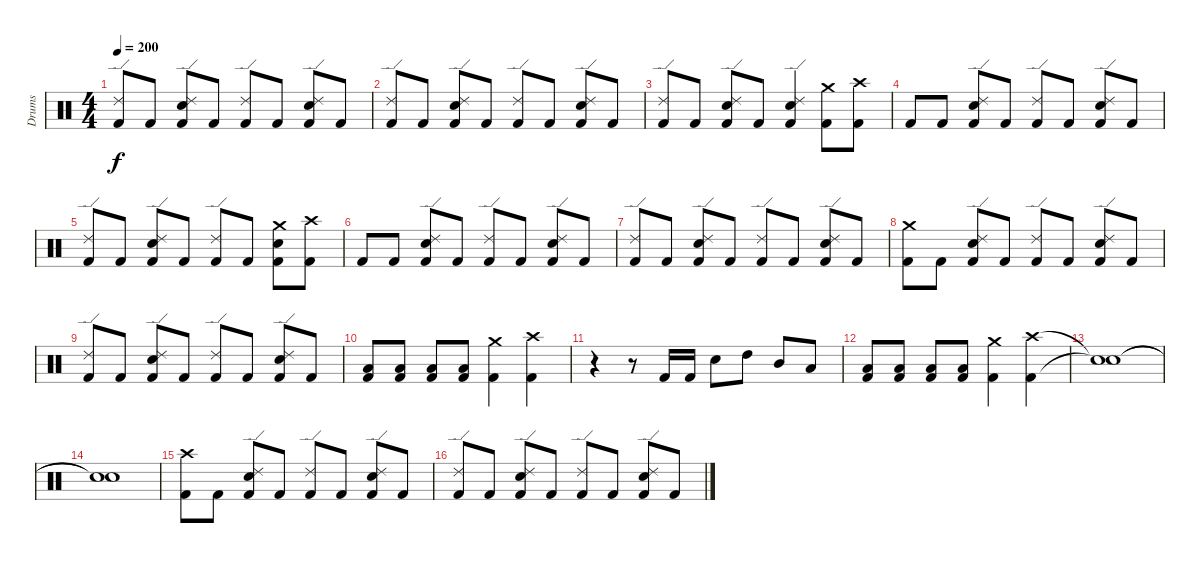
\track ("Drums" "Drums") {instrument percussion}
\staff {score}
\articulation defaults
\ts (4 4)
\tempo 200
\clef neutral
\ks c
("Kick (hit) 2" "Ride (edge) 2").8{dy f} "Kick (hit) 2".8 ("Kick (hit) 2" "Electric Snare (hit)" "Ride (edge) 2").8 "Kick (hit) 2".8 ("Kick (hit) 2" "Ride (edge) 2").8 "Kick (hit) 2".8 ("Kick (hit) 2" "Electric Snare (hit)" "Ride (edge) 2").8 "Kick (hit) 2".8 |
("Kick (hit) 2" "Ride (edge) 2").8 "Kick (hit) 2".8 ("Kick (hit) 2" "Electric Snare (hit)" "Ride (edge) 2").8 "Kick (hit) 2".8 ("Kick (hit) 2" "Ride (edge) 2").8 "Kick (hit) 2".8 ("Kick (hit) 2" "Electric Snare (hit)" "Ride (edge) 2").8 "Kick (hit) 2".8 |
("Kick (hit) 2" "Ride (edge) 2").8 "Kick (hit) 2".8 ("Kick (hit) 2" "Electric Snare (hit)" "Ride (edge) 2").8 "Kick (hit) 2".8 ("Kick (hit) 2" "Electric Snare (hit)" "Ride (edge) 2").4 ("Kick (hit) 2" "Crash medium (hit)").8 ("Kick (hit) 2" "Crash high (hit)").8 |
"Kick (hit) 2".8 "Kick (hit) 2".8 ("Kick (hit) 2" "Electric Snare (hit)" "Ride (edge) 2").8 "Kick (hit) 2".8 ("Kick (hit) 2" "Ride (edge) 2").8 "Kick (hit) 2".8 ("Kick (hit) 2" "Electric Snare (hit)" "Ride (edge) 2").8 "Kick (hit) 2".8 |
("Kick (hit) 2" "Ride (edge) 2").8 "Kick (hit) 2".8 ("Kick (hit) 2" "Electric Snare (hit)" "Ride (edge) 2").8 "Kick (hit) 2".8 ("Kick (hit) 2" "Ride (edge) 2").8 "Kick (hit) 2".8 ("Kick (hit) 2" "Electric Snare (hit)" "Crash medium (hit)").8 ("Kick (hit) 2" "Crash high (hit)").8 |
"Kick (hit) 2".8 "Kick (hit) 2".8 ("Kick (hit) 2" "Electric Snare (hit)" "Ride (edge) 2").8 "Kick (hit) 2".8 ("Kick (hit) 2" "Ride (edge) 2").8 "Kick (hit) 2".8 ("Kick (hit) 2" "Electric Snare (hit)" "Ride (edge) 2").8 "Kick (hit) 2".8 |
("Kick (hit) 2" "Ride (edge) 2").8 "Kick (hit) 2".8 ("Kick (hit) 2" "Electric Snare (hit)" "Ride (edge) 2").8 "Kick (hit) 2".8 ("Kick (hit) 2" "Ride (edge) 2").8 "Kick (hit) 2".8 ("Kick (hit) 2" "Electric Snare (hit)" "Ride (edge) 2").8 "Kick (hit) 2".8 |
("Kick (hit) 2" "Crash medium (hit)").8 "Kick (hit) 2".8 ("Kick (hit) 2" "Electric Snare (hit)" "Ride (edge) 2").8 "Kick (hit) 2".8 ("Kick (hit) 2" "Ride (edge) 2").8 "Kick (hit) 2".8 ("Kick (hit) 2" "Electric Snare (hit)" "Ride (edge) 2").8 "Kick (hit) 2".8 |
("Kick (hit) 2" "Ride (edge) 2").8 "Kick (hit) 2".8 ("Kick (hit) 2" "Electric Snare (hit)" "Ride (edge) 2").8 "Kick (hit) 2".8 ("Kick (hit) 2" "Ride (edge) 2").8 "Kick (hit) 2".8 ("Kick (hit) 2" "Electric Snare (hit)" "Ride (edge) 2").8 "Kick (hit) 2".8 |
\section ("" "")
("Kick (hit) 2" "Low Floor Tom (hit)").8 ("Kick (hit) 2" "Low Floor Tom (hit)").8 ("Kick (hit) 2" "Low Floor Tom (hit)").8 ("Kick (hit) 2" "Low Floor Tom (hit)").8 ("Kick (hit) 2" "Crash medium (hit)").4 ("Kick (hit) 2" "Crash high (hit)").4 |
r.4 r.8 "Kick (hit) 2".16 "Kick (hit) 2".16 "Electric Snare (hit)".8 "High Tom (hit)".8 "Mid Tom (hit)".8 "Low Tom (hit)".8 |
("Kick (hit) 2" "Low Floor Tom (hit)").8 ("Kick (hit) 2" "Low Floor Tom (hit)").8 ("Kick (hit) 2" "Low Floor Tom (hit)").8 ("Kick (hit) 2" "Low Floor Tom (hit)").8 ("Kick (hit) 2" "Crash medium (hit)").4 ("Kick (hit) 2" "Crash high (hit)").4 |
("Snare (hit)"{t} "Snare (hit)"{t}).1 |
("Snare (hit)"{t} "Snare (hit)"{t}).1 |
\section ("" "")
("Kick (hit) 2" "Crash high (hit)").8 "Kick (hit) 2".8 ("Kick (hit) 2" "Electric Snare (hit)" "Ride (edge) 2").8 "Kick (hit) 2".8 ("Kick (hit) 2" "Ride (edge) 2").8 "Kick (hit) 2".8 ("Kick (hit) 2" "Electric Snare (hit)" "Ride (edge) 2").8 "Kick (hit) 2".8 |
("Kick (hit) 2" "Ride (edge) 2").8 "Kick (hit) 2".8 ("Kick (hit) 2" "Electric Snare (hit)" "Ride (edge) 2").8 "Kick (hit) 2".8 ("Kick (hit) 2" "Ride (edge) 2").8 "Kick (hit) 2".8 ("Kick (hit) 2" "Electric Snare (hit)" "Ride (edge) 2").8 "Kick (hit) 2".8
